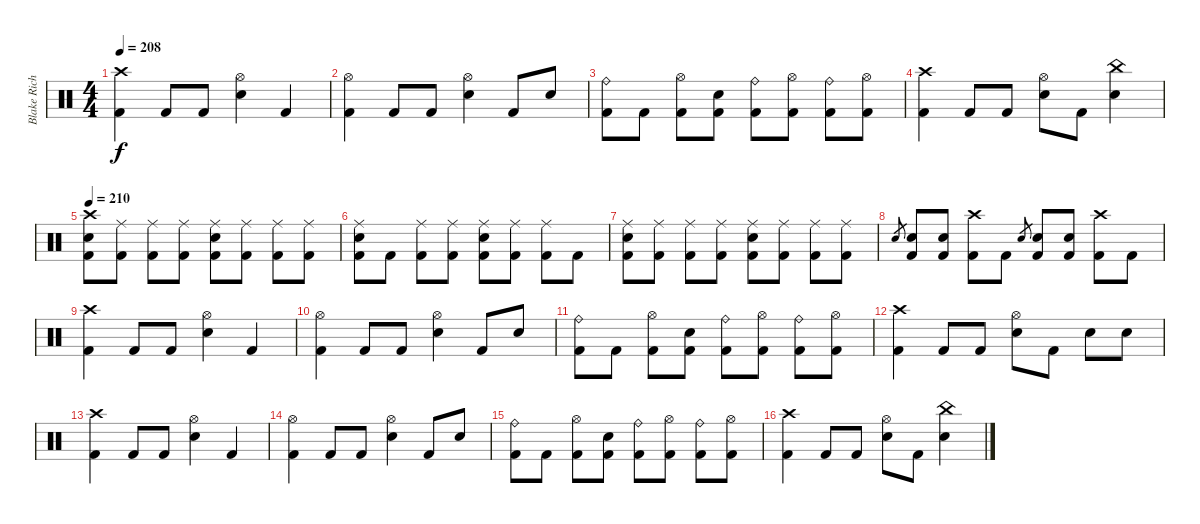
\track ("Blake Richardson" "Blake Rich") {instrument percussion}
\staff {score}
\articulation defaults
\ts (4 4)
\tempo 208
\clef neutral
\ks c
("Crash high (hit)" "Kick (hit) 2").4{dy f} "Kick (hit) 2".8 "Kick (hit) 2".8 ("Hi-Hat (open)" "Electric Snare (hit)").4 "Kick (hit) 2".4 |
("Hi-Hat (open)" "Kick (hit) 2").4 "Kick (hit) 2".8 "Kick (hit) 2".8 ("Hi-Hat (open)" "Electric Snare (hit)").4 "Kick (hit) 2".8 "Electric Snare (hit)".8 |
("Ride (bell)" "Kick (hit) 2").8 "Kick (hit) 2".8 ("Hi-Hat (open)" "Kick (hit) 2").8 ("Electric Snare (hit)" "Kick (hit) 2").8 ("Ride (bell)" "Kick (hit) 2").8 ("Hi-Hat (open)" "Kick (hit) 2").8 ("Ride (bell)" "Kick (hit) 2").8 ("Hi-Hat (open)" "Kick (hit) 2").8 |
("Crash high (hit)" "Kick (hit) 2").4 "Kick (hit) 2".8 "Kick (hit) 2".8 ("Hi-Hat (open)" "Electric Snare (hit)").8 "Kick (hit) 2".8 ("China (hit)" "Electric Snare (hit)").4 |
\tempo 210
("Crash high (hit)" "Electric Snare (hit)" "Kick (hit) 2").8 ("Ride (middle)" "Kick (hit) 2").8 ("Ride (middle)" "Kick (hit) 2").8 ("Ride (middle)" "Kick (hit) 2").8 ("Ride (middle)" "Electric Snare (hit)" "Kick (hit) 2").8 ("Ride (middle)" "Kick (hit) 2").8 ("Ride (middle)" "Kick (hit) 2").8 ("Ride (middle)" "Kick (hit) 2").8 |
("Ride (middle)" "Electric Snare (hit)" "Kick (hit) 2").8 "Kick (hit) 2".8 ("Ride (middle)" "Kick (hit) 2").8 ("Ride (middle)" "Kick (hit) 2").8 ("Ride (middle)" "Electric Snare (hit)" "Kick (hit) 2").8 ("Ride (middle)" "Kick (hit) 2").8 ("Ride (middle)" "Kick (hit) 2").8 "Kick (hit) 2".8 |
("Ride (middle)" "Electric Snare (hit)" "Kick (hit) 2").8 ("Ride (middle)" "Kick (hit) 2").8 ("Ride (middle)" "Kick (hit) 2").8 ("Ride (middle)" "Kick (hit) 2").8 ("Ride (middle)" "Electric Snare (hit)" "Kick (hit) 2").8 ("Ride (middle)" "Kick (hit) 2").8 ("Ride (middle)" "Kick (hit) 2").8 ("Ride (middle)" "Kick (hit) 2").8 |
"Electric Snare (hit)".8{gr} ("Electric Snare (hit)" "Kick (hit) 2").8 ("Electric Snare (hit)" "Kick (hit) 2").8 ("Crash high (hit)" "Kick (hit) 2").8 "Kick (hit) 2".8 "Electric Snare (hit)".8{gr} ("Electric Snare (hit)" "Kick (hit) 2").8 ("Electric Snare (hit)" "Kick (hit) 2").8 ("Crash high (hit)" "Kick (hit) 2").8 "Kick (hit) 2".8 |
("Crash high (hit)" "Kick (hit) 2").4 "Kick (hit) 2".8 "Kick (hit) 2".8 ("Hi-Hat (open)" "Electric Snare (hit)").4 "Kick (hit) 2".4 |
("Hi-Hat (open)" "Kick (hit) 2").4 "Kick (hit) 2".8 "Kick (hit) 2".8 ("Hi-Hat (open)" "Electric Snare (hit)").4 "Kick (hit) 2".8 "Electric Snare (hit)".8 |
("Ride (bell)" "Kick (hit) 2").8 "Kick (hit) 2".8 ("Hi-Hat (open)" "Kick (hit) 2").8 ("Electric Snare (hit)" "Kick (hit) 2").8 ("Ride (bell)" "Kick (hit) 2").8 ("Hi-Hat (open)" "Kick (hit) 2").8 ("Ride (bell)" "Kick (hit) 2").8 ("Hi-Hat (open)" "Kick (hit) 2").8 |
("Crash high (hit)" "Kick (hit) 2").4 "Kick (hit) 2".8 "Kick (hit) 2".8 ("Hi-Hat (open)" "Electric Snare (hit)").8 "Kick (hit) 2".8 "Electric Snare (hit)".8 "Electric Snare (hit)".8 |
("Crash high (hit)" "Kick (hit) 2").4 "Kick (hit) 2".8 "Kick (hit) 2".8 ("Hi-Hat (open)" "Electric Snare (hit)").4 "Kick (hit) 2".4 |
("Hi-Hat (open)" "Kick (hit) 2").4 "Kick (hit) 2".8 "Kick (hit) 2".8 ("Hi-Hat (open)" "Electric Snare (hit)").4 "Kick (hit) 2".8 "Electric Snare (hit)".8 |
("Ride (bell)" "Kick (hit) 2").8 "Kick (hit) 2".8 ("Hi-Hat (open)" "Kick (hit) 2").8 ("Electric Snare (hit)" "Kick (hit) 2").8 ("Ride (bell)" "Kick (hit) 2").8 ("Hi-Hat (open)" "Kick (hit) 2").8 ("Ride (bell)" "Kick (hit) 2").8 ("Hi-Hat (open)" "Kick (hit) 2").8 |
("Crash high (hit)" "Kick (hit) 2").4 "Kick (hit) 2".8 "Kick (hit) 2".8 ("Hi-Hat (open)" "Electric Snare (hit)").8 "Kick (hit) 2".8 ("China (hit)" "Electric Snare (hit)").4
